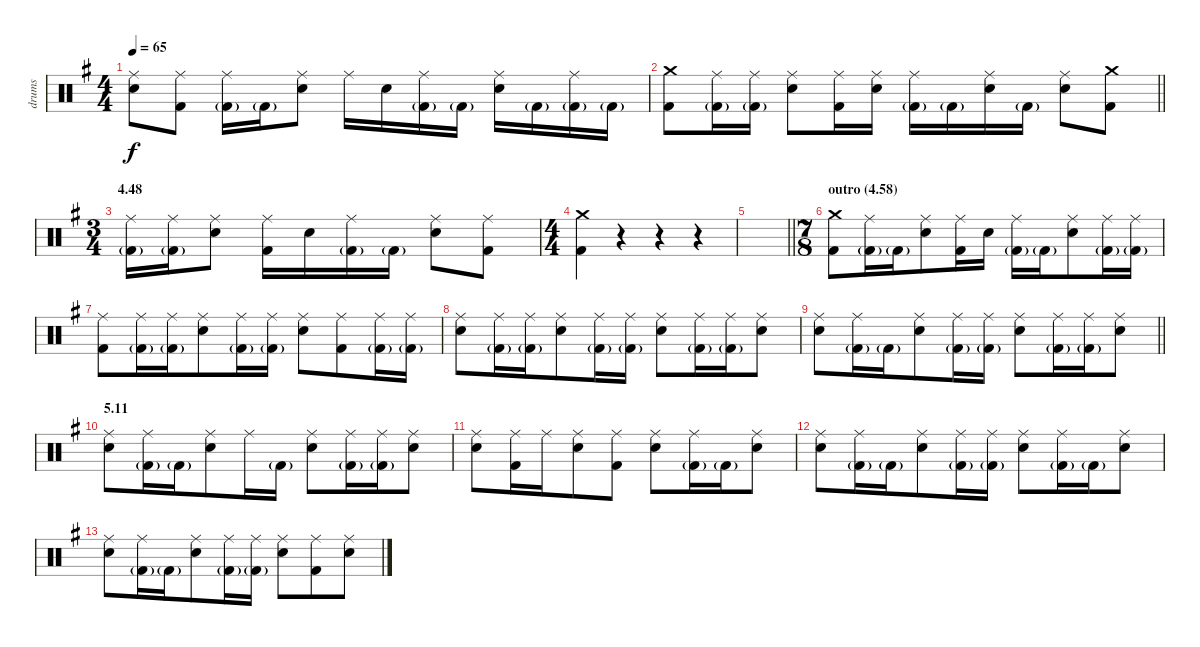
\track ("drums" "drums") {instrument percussion}
\staff {score}
\articulation defaults
\ts (4 4)
\tempo 65
\clef neutral
\ks g
("Ride (middle)" "Electric Snare (hit)").8{dy f} ("Ride (middle)" "Kick (hit) 2").8 ("Ride (middle)" "Kick (hit) 2"{g}).16 "Kick (hit) 2"{g}.16 ("Ride (middle)" "Electric Snare (hit)").8 "Ride (middle)".16 "Electric Snare (hit)".16 ("Ride (middle)" "Kick (hit) 2"{g}).16 "Kick (hit) 2"{g}.16 ("Ride (middle)" "Electric Snare (hit)").16 "Kick (hit) 2"{g}.16 ("Ride (middle)" "Kick (hit) 2"{g}).16 "Kick (hit) 2"{g}.16 |
\barLineRight lightlight
("Crash medium (hit)" "Kick (hit) 2").8 ("Ride (middle)" "Kick (hit) 2"{g}).16 ("Ride (middle)" "Kick (hit) 2"{g}).16 ("Ride (middle)" "Electric Snare (hit)").8 ("Ride (middle)" "Kick (hit) 2").16 ("Ride (middle)" "Electric Snare (hit)").16 ("Ride (middle)" "Kick (hit) 2"{g}).16 "Kick (hit) 2"{g}.16 ("Ride (middle)" "Electric Snare (hit)").16 "Kick (hit) 2"{g}.16 ("Ride (middle)" "Electric Snare (hit)").8 ("Crash medium (hit)" "Kick (hit) 2").8 |
\ts (3 4)
\section ("" "4.48")
("Ride (middle)" "Kick (hit) 2"{g}).16 ("Ride (middle)" "Kick (hit) 2"{g}).16 ("Ride (middle)" "Electric Snare (hit)").8 ("Ride (middle)" "Kick (hit) 2").16 "Electric Snare (hit)".16 ("Ride (middle)" "Kick (hit) 2"{g}).16 "Kick (hit) 2"{g}.16 ("Ride (middle)" "Electric Snare (hit)").8 ("Ride (middle)" "Kick (hit) 2").8 |
\ts (4 4)
("Crash medium (hit)" "Kick (hit) 2").4 r.4 r.4 r.4 |
\barLineRight lightlight
|
\ts (7 8)
\section ("" "outro (4.58)")
("Crash medium (hit)" "Kick (hit) 2").8 ("Ride (middle)" "Kick (hit) 2"{g}).16 "Kick (hit) 2"{g}.16 ("Ride (middle)" "Electric Snare (hit)").8 ("Ride (middle)" "Kick (hit) 2").16 "Electric Snare (hit)".16 ("Ride (middle)" "Kick (hit) 2"{g}).16 "Kick (hit) 2"{g}.16 ("Ride (middle)" "Electric Snare (hit)").8 ("Ride (middle)" "Kick (hit) 2"{g}).16 ("Ride (middle)" "Kick (hit) 2"{g}).16 |
("Ride (middle)" "Kick (hit) 2").8 ("Ride (middle)" "Kick (hit) 2"{g}).16 ("Ride (middle)" "Kick (hit) 2"{g}).16 ("Ride (middle)" "Electric Snare (hit)").8 ("Ride (middle)" "Kick (hit) 2"{g}).16 ("Ride (middle)" "Kick (hit) 2"{g}).16 ("Ride (middle)" "Electric Snare (hit)").8 ("Ride (middle)" "Kick (hit) 2").8 ("Ride (middle)" "Kick (hit) 2"{g}).16 ("Ride (middle)" "Kick (hit) 2"{g}).16 |
("Ride (middle)" "Electric Snare (hit)").8 ("Ride (middle)" "Kick (hit) 2"{g}).16 ("Ride (middle)" "Kick (hit) 2"{g}).16 ("Ride (middle)" "Electric Snare (hit)").8 ("Ride (middle)" "Kick (hit) 2"{g}).16 ("Ride (middle)" "Kick (hit) 2"{g}).16 ("Ride (middle)" "Electric Snare (hit)").8 ("Ride (middle)" "Kick (hit) 2"{g}).16 ("Ride (middle)" "Kick (hit) 2"{g}).16 ("Ride (middle)" "Electric Snare (hit)").8 |
\barLineRight lightlight
("Ride (middle)" "Electric Snare (hit)").8 ("Ride (middle)" "Kick (hit) 2"{g}).16 "Kick (hit) 2"{g}.16 ("Ride (middle)" "Electric Snare (hit)").8 ("Ride (middle)" "Kick (hit) 2"{g}).16 ("Ride (middle)" "Kick (hit) 2"{g}).16 ("Ride (middle)" "Electric Snare (hit)").8 ("Ride (middle)" "Kick (hit) 2"{g}).16 ("Ride (middle)" "Kick (hit) 2"{g}).16 ("Ride (middle)" "Electric Snare (hit)").8 |
\section ("" "5.11")
("Ride (middle)" "Electric Snare (hit)").8 ("Ride (middle)" "Kick (hit) 2"{g}).16 "Kick (hit) 2"{g}.16 ("Ride (middle)" "Electric Snare (hit)").8 "Ride (middle)".16 "Kick (hit) 2"{g}.16 ("Ride (middle)" "Electric Snare (hit)").8 ("Ride (middle)" "Kick (hit) 2"{g}).16 ("Ride (middle)" "Kick (hit) 2"{g}).16 ("Ride (middle)" "Electric Snare (hit)").8 |
("Ride (middle)" "Electric Snare (hit)").8 ("Ride (middle)" "Kick (hit) 2").16 "Ride (middle)".16 ("Ride (middle)" "Electric Snare (hit)").8 ("Ride (middle)" "Kick (hit) 2").8 ("Ride (middle)" "Electric Snare (hit)").8 ("Ride (middle)" "Kick (hit) 2"{g}).16 "Kick (hit) 2"{g}.16 ("Ride (middle)" "Electric Snare (hit)").8 |
("Ride (middle)" "Electric Snare (hit)").8 ("Ride (middle)" "Kick (hit) 2"{g}).16 "Kick (hit) 2"{g}.16 ("Ride (middle)" "Electric Snare (hit)").8 ("Ride (middle)" "Kick (hit) 2"{g}).16 ("Ride (middle)" "Kick (hit) 2"{g}).16 ("Ride (middle)" "Electric Snare (hit)").8 ("Ride (middle)" "Kick (hit) 2"{g}).16 "Kick (hit) 2"{g}.16 ("Ride (middle)" "Electric Snare (hit)").8 |
("Ride (middle)" "Electric Snare (hit)").8 ("Ride (middle)" "Kick (hit) 2"{g}).16 "Kick (hit) 2"{g}.16 ("Ride (middle)" "Electric Snare (hit)").8 ("Ride (middle)" "Kick (hit) 2"{g}).16 ("Ride (middle)" "Kick (hit) 2"{g}).16 ("Ride (middle)" "Electric Snare (hit)").8 ("Ride (middle)" "Kick (hit) 2").8 ("Ride (middle)" "Electric Snare (hit)").8
